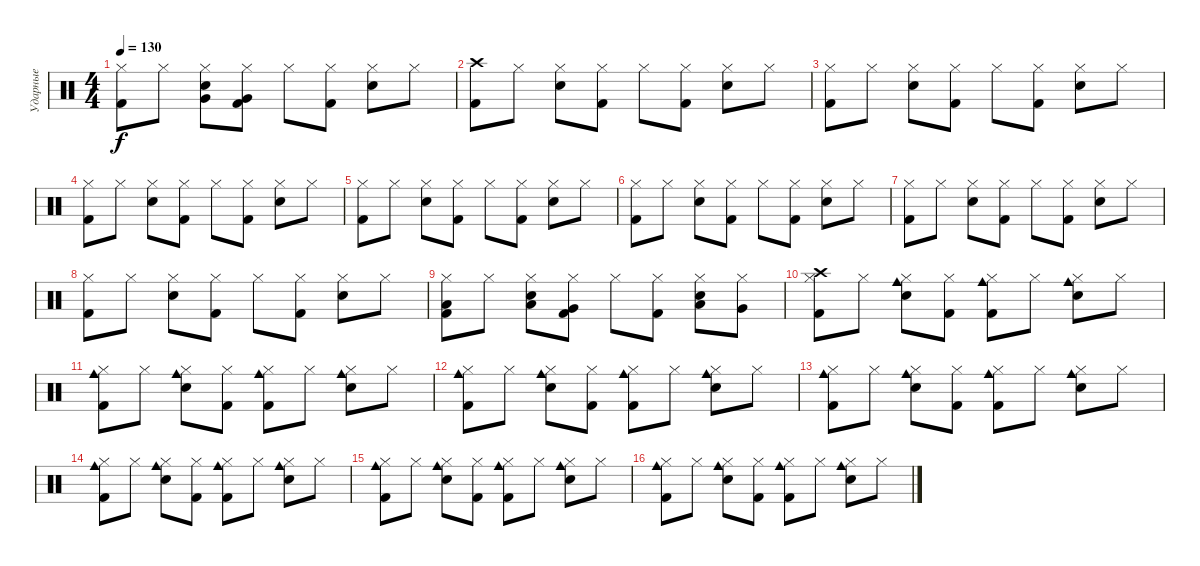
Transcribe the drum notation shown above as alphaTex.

\track ("Ударные" "Ударные") {instrument percussion}
\staff {score}
\articulation defaults
\ts (4 4)
\tempo 130
\clef neutral
\ks c
("Hi-Hat (closed)" "Kick (hit) 2").8{dy f} "Hi-Hat (closed)".8 ("Hi-Hat (closed)" "Very Low Tom (hit)" "Snare (hit) 2").8 ("Hi-Hat (closed)" "Very Low Tom (hit)" "Kick (hit) 2").8 "Hi-Hat (closed)".8 ("Hi-Hat (closed)" "Kick (hit) 2").8 ("Hi-Hat (closed)" "Snare (hit) 2").8 "Hi-Hat (closed)".8 |
("Crash high (hit)" "Kick (hit) 2").8 "Hi-Hat (closed)".8 ("Hi-Hat (closed)" "Snare (hit) 2").8 ("Hi-Hat (closed)" "Kick (hit) 2").8 "Hi-Hat (closed)".8 ("Hi-Hat (closed)" "Kick (hit) 2").8 ("Hi-Hat (closed)" "Snare (hit) 2").8 "Hi-Hat (closed)".8 |
("Hi-Hat (closed)" "Kick (hit) 2").8 "Hi-Hat (closed)".8 ("Hi-Hat (closed)" "Snare (hit) 2").8 ("Hi-Hat (closed)" "Kick (hit) 2").8 "Hi-Hat (closed)".8 ("Hi-Hat (closed)" "Kick (hit) 2").8 ("Hi-Hat (closed)" "Snare (hit) 2").8 "Hi-Hat (closed)".8 |
("Hi-Hat (closed)" "Kick (hit) 2").8 "Hi-Hat (closed)".8 ("Hi-Hat (closed)" "Snare (hit) 2").8 ("Hi-Hat (closed)" "Kick (hit) 2").8 "Hi-Hat (closed)".8 ("Hi-Hat (closed)" "Kick (hit) 2").8 ("Hi-Hat (closed)" "Snare (hit) 2").8 "Hi-Hat (closed)".8 |
("Hi-Hat (closed)" "Kick (hit) 2").8 "Hi-Hat (closed)".8 ("Hi-Hat (closed)" "Snare (hit) 2").8 ("Hi-Hat (closed)" "Kick (hit) 2").8 "Hi-Hat (closed)".8 ("Hi-Hat (closed)" "Kick (hit) 2").8 ("Hi-Hat (closed)" "Snare (hit) 2").8 "Hi-Hat (closed)".8 |
("Hi-Hat (closed)" "Kick (hit) 2").8 "Hi-Hat (closed)".8 ("Hi-Hat (closed)" "Snare (hit) 2").8 ("Hi-Hat (closed)" "Kick (hit) 2").8 "Hi-Hat (closed)".8 ("Hi-Hat (closed)" "Kick (hit) 2").8 ("Hi-Hat (closed)" "Snare (hit) 2").8 "Hi-Hat (closed)".8 |
("Hi-Hat (closed)" "Kick (hit) 2").8 "Hi-Hat (closed)".8 ("Hi-Hat (closed)" "Snare (hit) 2").8 ("Hi-Hat (closed)" "Kick (hit) 2").8 "Hi-Hat (closed)".8 ("Hi-Hat (closed)" "Kick (hit) 2").8 ("Hi-Hat (closed)" "Snare (hit) 2").8 "Hi-Hat (closed)".8 |
("Hi-Hat (closed)" "Kick (hit) 2").8 "Hi-Hat (closed)".8 ("Hi-Hat (closed)" "Snare (hit) 2").8 ("Hi-Hat (closed)" "Kick (hit) 2").8 "Hi-Hat (closed)".8 ("Hi-Hat (closed)" "Kick (hit) 2").8 ("Hi-Hat (closed)" "Snare (hit) 2").8 "Hi-Hat (closed)".8 |
("Hi-Hat (closed)" "Low Tom (hit)" "Kick (hit) 2").8 "Hi-Hat (closed)".8 ("Hi-Hat (closed)" "Low Tom (hit)" "Snare (hit) 2").8 ("Hi-Hat (closed)" "Very Low Tom (hit)" "Kick (hit) 2").8 "Hi-Hat (closed)".8 ("Hi-Hat (closed)" "Kick (hit) 2").8 ("Hi-Hat (closed)" "Low Tom (hit)" "Snare (hit) 2").8 ("Hi-Hat (closed)" "Very Low Tom (hit)").8 |
("Hi-Hat (closed)" "Crash high (hit)" "Kick (hit) 2").8 "Hi-Hat (closed)".8 ("Hi-Hat (closed)" "Cowbell medium (hit)" "Snare (hit) 2").8 ("Hi-Hat (closed)" "Kick (hit) 2").8 ("Hi-Hat (closed)" "Cowbell medium (hit)" "Kick (hit) 2").8 "Hi-Hat (closed)".8 ("Hi-Hat (closed)" "Cowbell medium (hit)" "Snare (hit) 2").8 "Hi-Hat (closed)".8 |
("Hi-Hat (closed)" "Cowbell medium (hit)" "Kick (hit) 2").8 "Hi-Hat (closed)".8 ("Hi-Hat (closed)" "Cowbell medium (hit)" "Snare (hit) 2").8 ("Hi-Hat (closed)" "Kick (hit) 2").8 ("Hi-Hat (closed)" "Cowbell medium (hit)" "Kick (hit) 2").8 "Hi-Hat (closed)".8 ("Hi-Hat (closed)" "Cowbell medium (hit)" "Snare (hit) 2").8 "Hi-Hat (closed)".8 |
("Hi-Hat (closed)" "Cowbell medium (hit)" "Kick (hit) 2").8 "Hi-Hat (closed)".8 ("Hi-Hat (closed)" "Cowbell medium (hit)" "Snare (hit) 2").8 ("Hi-Hat (closed)" "Kick (hit) 2").8 ("Hi-Hat (closed)" "Cowbell medium (hit)" "Kick (hit) 2").8 "Hi-Hat (closed)".8 ("Hi-Hat (closed)" "Cowbell medium (hit)" "Snare (hit) 2").8 "Hi-Hat (closed)".8 |
("Hi-Hat (closed)" "Cowbell medium (hit)" "Kick (hit) 2").8 "Hi-Hat (closed)".8 ("Hi-Hat (closed)" "Cowbell medium (hit)" "Snare (hit) 2").8 ("Hi-Hat (closed)" "Kick (hit) 2").8 ("Hi-Hat (closed)" "Cowbell medium (hit)" "Kick (hit) 2").8 "Hi-Hat (closed)".8 ("Hi-Hat (closed)" "Cowbell medium (hit)" "Snare (hit) 2").8 "Hi-Hat (closed)".8 |
("Hi-Hat (closed)" "Cowbell medium (hit)" "Kick (hit) 2").8 "Hi-Hat (closed)".8 ("Hi-Hat (closed)" "Cowbell medium (hit)" "Snare (hit) 2").8 ("Hi-Hat (closed)" "Kick (hit) 2").8 ("Hi-Hat (closed)" "Cowbell medium (hit)" "Kick (hit) 2").8 "Hi-Hat (closed)".8 ("Hi-Hat (closed)" "Cowbell medium (hit)" "Snare (hit) 2").8 "Hi-Hat (closed)".8 |
("Hi-Hat (closed)" "Cowbell medium (hit)" "Kick (hit) 2").8 "Hi-Hat (closed)".8 ("Hi-Hat (closed)" "Cowbell medium (hit)" "Snare (hit) 2").8 ("Hi-Hat (closed)" "Kick (hit) 2").8 ("Hi-Hat (closed)" "Cowbell medium (hit)" "Kick (hit) 2").8 "Hi-Hat (closed)".8 ("Hi-Hat (closed)" "Cowbell medium (hit)" "Snare (hit) 2").8 "Hi-Hat (closed)".8 |
("Hi-Hat (closed)" "Cowbell medium (hit)" "Kick (hit) 2").8 "Hi-Hat (closed)".8 ("Hi-Hat (closed)" "Cowbell medium (hit)" "Snare (hit) 2").8 ("Hi-Hat (closed)" "Kick (hit) 2").8 ("Hi-Hat (closed)" "Cowbell medium (hit)" "Kick (hit) 2").8 "Hi-Hat (closed)".8 ("Hi-Hat (closed)" "Cowbell medium (hit)" "Snare (hit) 2").8 "Hi-Hat (closed)".8
